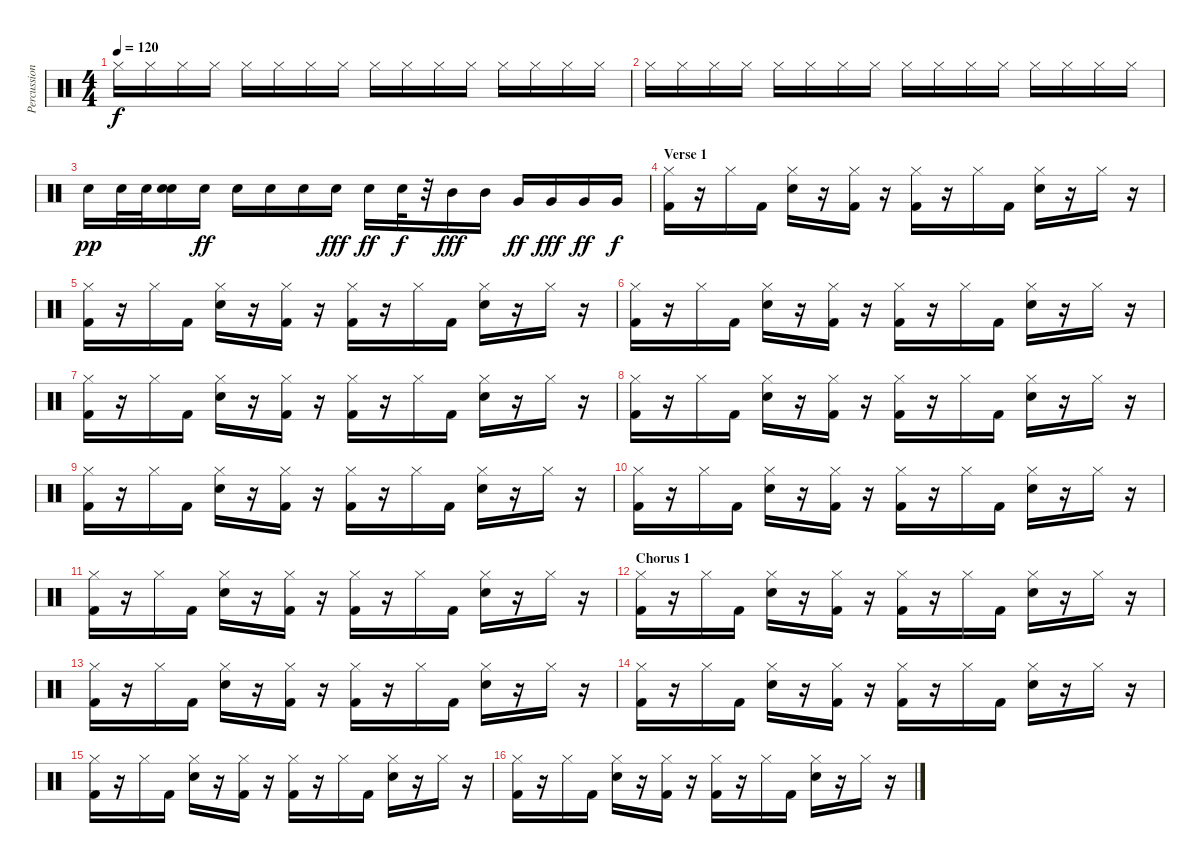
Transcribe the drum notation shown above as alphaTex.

\track ("Percussion" "Percussion") {instrument percussion}
\staff {score}
\articulation defaults
\ts (4 4)
\tempo 120
\clef neutral
\ks c "Hi-Hat (closed)".16{dy f} "Hi-Hat (closed)".16 "Hi-Hat (closed)".16 "Hi-Hat (closed)".16 "Hi-Hat (closed)".16 "Hi-Hat (closed)".16 "Hi-Hat (closed)".16 "Hi-Hat (closed)".16 "Hi-Hat (closed)".16 "Hi-Hat (closed)".16 "Hi-Hat (closed)".16 "Hi-Hat (closed)".16 "Hi-Hat (closed)".16 "Hi-Hat (closed)".16 "Hi-Hat (closed)".16 "Hi-Hat (closed)".16
|
"Hi-Hat (closed)".16 "Hi-Hat (closed)".16 "Hi-Hat (closed)".16 "Hi-Hat (closed)".16 "Hi-Hat (closed)".16 "Hi-Hat (closed)".16 "Hi-Hat (closed)".16 "Hi-Hat (closed)".16 "Hi-Hat (closed)".16 "Hi-Hat (closed)".16 "Hi-Hat (closed)".16 "Hi-Hat (closed)".16 "Hi-Hat (closed)".16 "Hi-Hat (closed)".16 "Hi-Hat (closed)".16 "Hi-Hat (closed)".16 |
"Electric Snare (hit)".16{dy pp} "Electric Snare (hit)".32 "Electric Snare (hit)".32 ("Electric Snare (hit)" "Electric Snare (hit)").16 "Electric Snare (hit)".16{dy ff} "Electric Snare (hit)".16 "Electric Snare (hit)".16 "Electric Snare (hit)".16 "Electric Snare (hit)".16{dy fff} "Electric Snare (hit)".16{dy ff} "Electric Snare (hit)".32{dy f} r.32 "Mid Tom (hit)".16{dy fff} "Mid Tom (hit)".16 "Very Low Tom (hit)".16{dy ff} "Very Low Tom (hit)".16{dy fff} "Very Low Tom (hit)".16{dy ff} "Very Low Tom (hit)".16{dy f} |
\section ("" "Verse 1")
("Kick (hit) 2" "Hi-Hat (closed)").16 r.16 "Hi-Hat (closed)".16 "Kick (hit) 2".16 ("Electric Snare (hit)" "Hi-Hat (closed)").16 r.16 ("Kick (hit) 2" "Hi-Hat (closed)").16 r.16 ("Kick (hit) 2" "Hi-Hat (closed)").16 r.16 "Hi-Hat (closed)".16 "Kick (hit) 2".16 ("Electric Snare (hit)" "Hi-Hat (closed)").16 r.16 "Hi-Hat (closed)".16 r.16 |
("Kick (hit) 2" "Hi-Hat (closed)").16 r.16 "Hi-Hat (closed)".16 "Kick (hit) 2".16 ("Electric Snare (hit)" "Hi-Hat (closed)").16 r.16 ("Kick (hit) 2" "Hi-Hat (closed)").16 r.16 ("Kick (hit) 2" "Hi-Hat (closed)").16 r.16 "Hi-Hat (closed)".16 "Kick (hit) 2".16 ("Electric Snare (hit)" "Hi-Hat (closed)").16 r.16 "Hi-Hat (closed)".16 r.16 |
("Kick (hit) 2" "Hi-Hat (closed)").16 r.16 "Hi-Hat (closed)".16 "Kick (hit) 2".16 ("Electric Snare (hit)" "Hi-Hat (closed)").16 r.16 ("Kick (hit) 2" "Hi-Hat (closed)").16 r.16 ("Kick (hit) 2" "Hi-Hat (closed)").16 r.16 "Hi-Hat (closed)".16 "Kick (hit) 2".16 ("Electric Snare (hit)" "Hi-Hat (closed)").16 r.16 "Hi-Hat (closed)".16 r.16 |
("Kick (hit) 2" "Hi-Hat (closed)").16 r.16 "Hi-Hat (closed)".16 "Kick (hit) 2".16 ("Electric Snare (hit)" "Hi-Hat (closed)").16 r.16 ("Kick (hit) 2" "Hi-Hat (closed)").16 r.16 ("Kick (hit) 2" "Hi-Hat (closed)").16 r.16 "Hi-Hat (closed)".16 "Kick (hit) 2".16 ("Electric Snare (hit)" "Hi-Hat (closed)").16 r.16 "Hi-Hat (closed)".16 r.16 |
("Kick (hit) 2" "Hi-Hat (closed)").16 r.16 "Hi-Hat (closed)".16 "Kick (hit) 2".16 ("Electric Snare (hit)" "Hi-Hat (closed)").16 r.16 ("Kick (hit) 2" "Hi-Hat (closed)").16 r.16 ("Kick (hit) 2" "Hi-Hat (closed)").16 r.16 "Hi-Hat (closed)".16 "Kick (hit) 2".16 ("Electric Snare (hit)" "Hi-Hat (closed)").16 r.16 "Hi-Hat (closed)".16 r.16 |
("Kick (hit) 2" "Hi-Hat (closed)").16 r.16 "Hi-Hat (closed)".16 "Kick (hit) 2".16 ("Electric Snare (hit)" "Hi-Hat (closed)").16 r.16 ("Kick (hit) 2" "Hi-Hat (closed)").16 r.16 ("Kick (hit) 2" "Hi-Hat (closed)").16 r.16 "Hi-Hat (closed)".16 "Kick (hit) 2".16 ("Electric Snare (hit)" "Hi-Hat (closed)").16 r.16 "Hi-Hat (closed)".16 r.16 |
("Kick (hit) 2" "Hi-Hat (closed)").16 r.16 "Hi-Hat (closed)".16 "Kick (hit) 2".16 ("Electric Snare (hit)" "Hi-Hat (closed)").16 r.16 ("Kick (hit) 2" "Hi-Hat (closed)").16 r.16 ("Kick (hit) 2" "Hi-Hat (closed)").16 r.16 "Hi-Hat (closed)".16 "Kick (hit) 2".16 ("Electric Snare (hit)" "Hi-Hat (closed)").16 r.16 "Hi-Hat (closed)".16 r.16 |
("Kick (hit) 2" "Hi-Hat (closed)").16 r.16 "Hi-Hat (closed)".16 "Kick (hit) 2".16 ("Electric Snare (hit)" "Hi-Hat (closed)").16 r.16 ("Kick (hit) 2" "Hi-Hat (closed)").16 r.16 ("Kick (hit) 2" "Hi-Hat (closed)").16 r.16 "Hi-Hat (closed)".16 "Kick (hit) 2".16 ("Electric Snare (hit)" "Hi-Hat (closed)").16 r.16 "Hi-Hat (closed)".16 r.16 |
\section ("" "Chorus 1")
("Kick (hit) 2" "Hi-Hat (closed)").16 r.16 "Hi-Hat (closed)".16 "Kick (hit) 2".16 ("Electric Snare (hit)" "Hi-Hat (closed)").16 r.16 ("Kick (hit) 2" "Hi-Hat (closed)").16 r.16 ("Kick (hit) 2" "Hi-Hat (closed)").16 r.16 "Hi-Hat (closed)".16 "Kick (hit) 2".16 ("Electric Snare (hit)" "Hi-Hat (closed)").16 r.16 "Hi-Hat (closed)".16 r.16 |
("Kick (hit) 2" "Hi-Hat (closed)").16 r.16 "Hi-Hat (closed)".16 "Kick (hit) 2".16 ("Electric Snare (hit)" "Hi-Hat (closed)").16 r.16 ("Kick (hit) 2" "Hi-Hat (closed)").16 r.16 ("Kick (hit) 2" "Hi-Hat (closed)").16 r.16 "Hi-Hat (closed)".16 "Kick (hit) 2".16 ("Electric Snare (hit)" "Hi-Hat (closed)").16 r.16 "Hi-Hat (closed)".16 r.16 |
("Kick (hit) 2" "Hi-Hat (closed)").16 r.16 "Hi-Hat (closed)".16 "Kick (hit) 2".16 ("Electric Snare (hit)" "Hi-Hat (closed)").16 r.16 ("Kick (hit) 2" "Hi-Hat (closed)").16 r.16 ("Kick (hit) 2" "Hi-Hat (closed)").16 r.16 "Hi-Hat (closed)".16 "Kick (hit) 2".16 ("Electric Snare (hit)" "Hi-Hat (closed)").16 r.16 "Hi-Hat (closed)".16 r.16 |
("Kick (hit) 2" "Hi-Hat (closed)").16 r.16 "Hi-Hat (closed)".16 "Kick (hit) 2".16 ("Electric Snare (hit)" "Hi-Hat (closed)").16 r.16 ("Kick (hit) 2" "Hi-Hat (closed)").16 r.16 ("Kick (hit) 2" "Hi-Hat (closed)").16 r.16 "Hi-Hat (closed)".16 "Kick (hit) 2".16 ("Electric Snare (hit)" "Hi-Hat (closed)").16 r.16 "Hi-Hat (closed)".16 r.16 |
("Kick (hit) 2" "Hi-Hat (closed)").16 r.16 "Hi-Hat (closed)".16 "Kick (hit) 2".16 ("Electric Snare (hit)" "Hi-Hat (closed)").16 r.16 ("Kick (hit) 2" "Hi-Hat (closed)").16 r.16 ("Kick (hit) 2" "Hi-Hat (closed)").16 r.16 "Hi-Hat (closed)".16 "Kick (hit) 2".16 ("Electric Snare (hit)" "Hi-Hat (closed)").16 r.16 "Hi-Hat (closed)".16 r.16
